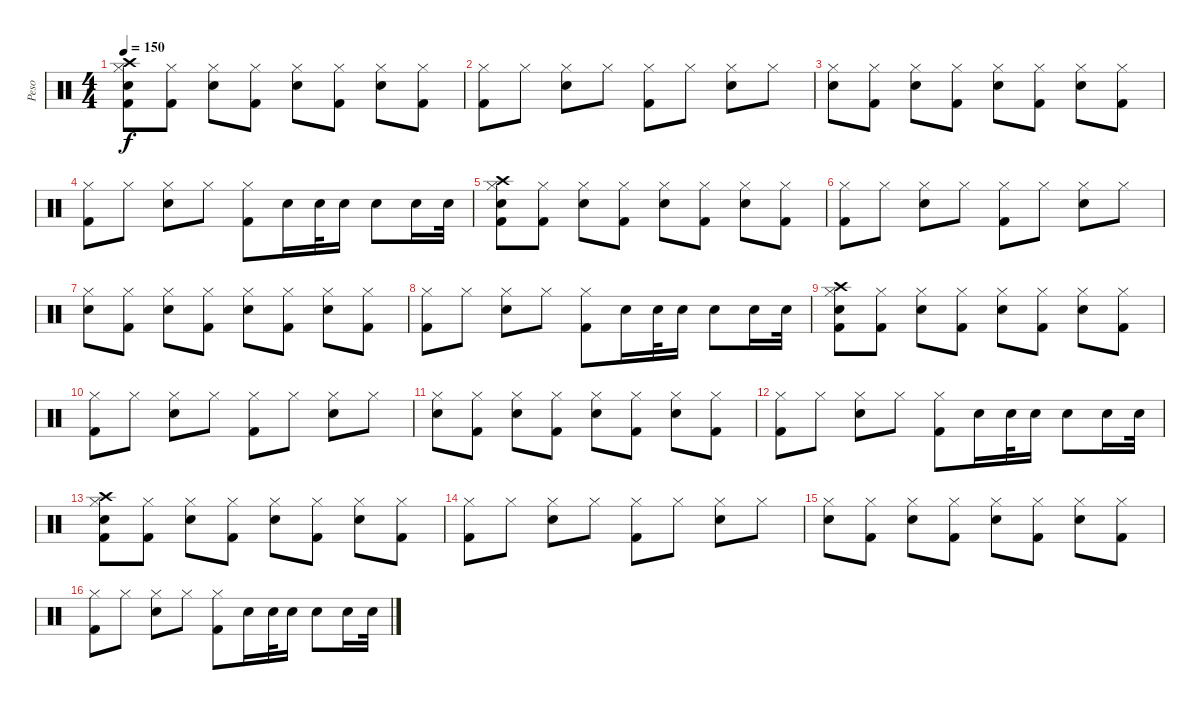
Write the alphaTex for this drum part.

\track ("Peso" "Peso") {instrument percussion}
\staff {score}
\articulation defaults
\ts (4 4)
\tempo 150
\clef neutral
\ks c
("Crash high (hit)" "Hi-Hat (closed)" "Snare (hit) 2" "Kick (hit) 2").8{dy f} ("Hi-Hat (closed)" "Kick (hit) 2").8 ("Hi-Hat (closed)" "Snare (hit) 2").8 ("Hi-Hat (closed)" "Kick (hit) 2").8 ("Hi-Hat (closed)" "Snare (hit) 2").8 ("Hi-Hat (closed)" "Kick (hit) 2").8 ("Hi-Hat (closed)" "Snare (hit) 2").8 ("Hi-Hat (closed)" "Kick (hit) 2").8 |
("Hi-Hat (closed)" "Kick (hit) 2").8 "Hi-Hat (closed)".8 ("Hi-Hat (closed)" "Snare (hit) 2").8 "Hi-Hat (closed)".8 ("Hi-Hat (closed)" "Kick (hit) 2").8 "Hi-Hat (closed)".8 ("Hi-Hat (closed)" "Snare (hit) 2").8 "Hi-Hat (closed)".8 |
("Hi-Hat (closed)" "Snare (hit) 2").8 ("Hi-Hat (closed)" "Kick (hit) 2").8 ("Hi-Hat (closed)" "Snare (hit) 2").8 ("Hi-Hat (closed)" "Kick (hit) 2").8 ("Hi-Hat (closed)" "Snare (hit) 2").8 ("Hi-Hat (closed)" "Kick (hit) 2").8 ("Hi-Hat (closed)" "Snare (hit) 2").8 ("Hi-Hat (closed)" "Kick (hit) 2").8 |
("Hi-Hat (closed)" "Kick (hit) 2").8 "Hi-Hat (closed)".8 ("Hi-Hat (closed)" "Snare (hit) 2").8 "Hi-Hat (closed)".8 ("Hi-Hat (closed)" "Kick (hit) 2").8 "Snare (hit) 2".16 "Snare (hit) 2".32 "Snare (hit) 2".16 "Snare (hit) 2".8 "Snare (hit) 2".16 "Snare (hit) 2".32 |
("Crash high (hit)" "Hi-Hat (closed)" "Snare (hit) 2" "Kick (hit) 2").8 ("Hi-Hat (closed)" "Kick (hit) 2").8 ("Hi-Hat (closed)" "Snare (hit) 2").8 ("Hi-Hat (closed)" "Kick (hit) 2").8 ("Hi-Hat (closed)" "Snare (hit) 2").8 ("Hi-Hat (closed)" "Kick (hit) 2").8 ("Hi-Hat (closed)" "Snare (hit) 2").8 ("Hi-Hat (closed)" "Kick (hit) 2").8 |
("Hi-Hat (closed)" "Kick (hit) 2").8 "Hi-Hat (closed)".8 ("Hi-Hat (closed)" "Snare (hit) 2").8 "Hi-Hat (closed)".8 ("Hi-Hat (closed)" "Kick (hit) 2").8 "Hi-Hat (closed)".8 ("Hi-Hat (closed)" "Snare (hit) 2").8 "Hi-Hat (closed)".8 |
("Hi-Hat (closed)" "Snare (hit) 2").8 ("Hi-Hat (closed)" "Kick (hit) 2").8 ("Hi-Hat (closed)" "Snare (hit) 2").8 ("Hi-Hat (closed)" "Kick (hit) 2").8 ("Hi-Hat (closed)" "Snare (hit) 2").8 ("Hi-Hat (closed)" "Kick (hit) 2").8 ("Hi-Hat (closed)" "Snare (hit) 2").8 ("Hi-Hat (closed)" "Kick (hit) 2").8 |
("Hi-Hat (closed)" "Kick (hit) 2").8 "Hi-Hat (closed)".8 ("Hi-Hat (closed)" "Snare (hit) 2").8 "Hi-Hat (closed)".8 ("Hi-Hat (closed)" "Kick (hit) 2").8 "Snare (hit) 2".16 "Snare (hit) 2".32 "Snare (hit) 2".16 "Snare (hit) 2".8 "Snare (hit) 2".16 "Snare (hit) 2".32 |
("Crash high (hit)" "Hi-Hat (closed)" "Snare (hit) 2" "Kick (hit) 2").8 ("Hi-Hat (closed)" "Kick (hit) 2").8 ("Hi-Hat (closed)" "Snare (hit) 2").8 ("Hi-Hat (closed)" "Kick (hit) 2").8 ("Hi-Hat (closed)" "Snare (hit) 2").8 ("Hi-Hat (closed)" "Kick (hit) 2").8 ("Hi-Hat (closed)" "Snare (hit) 2").8 ("Hi-Hat (closed)" "Kick (hit) 2").8 |
("Hi-Hat (closed)" "Kick (hit) 2").8 "Hi-Hat (closed)".8 ("Hi-Hat (closed)" "Snare (hit) 2").8 "Hi-Hat (closed)".8 ("Hi-Hat (closed)" "Kick (hit) 2").8 "Hi-Hat (closed)".8 ("Hi-Hat (closed)" "Snare (hit) 2").8 "Hi-Hat (closed)".8 |
("Hi-Hat (closed)" "Snare (hit) 2").8 ("Hi-Hat (closed)" "Kick (hit) 2").8 ("Hi-Hat (closed)" "Snare (hit) 2").8 ("Hi-Hat (closed)" "Kick (hit) 2").8 ("Hi-Hat (closed)" "Snare (hit) 2").8 ("Hi-Hat (closed)" "Kick (hit) 2").8 ("Hi-Hat (closed)" "Snare (hit) 2").8 ("Hi-Hat (closed)" "Kick (hit) 2").8 |
("Hi-Hat (closed)" "Kick (hit) 2").8 "Hi-Hat (closed)".8 ("Hi-Hat (closed)" "Snare (hit) 2").8 "Hi-Hat (closed)".8 ("Hi-Hat (closed)" "Kick (hit) 2").8 "Snare (hit) 2".16 "Snare (hit) 2".32 "Snare (hit) 2".16 "Snare (hit) 2".8 "Snare (hit) 2".16 "Snare (hit) 2".32 |
("Crash high (hit)" "Hi-Hat (closed)" "Snare (hit) 2" "Kick (hit) 2").8 ("Hi-Hat (closed)" "Kick (hit) 2").8 ("Hi-Hat (closed)" "Snare (hit) 2").8 ("Hi-Hat (closed)" "Kick (hit) 2").8 ("Hi-Hat (closed)" "Snare (hit) 2").8 ("Hi-Hat (closed)" "Kick (hit) 2").8 ("Hi-Hat (closed)" "Snare (hit) 2").8 ("Hi-Hat (closed)" "Kick (hit) 2").8 |
("Hi-Hat (closed)" "Kick (hit) 2").8 "Hi-Hat (closed)".8 ("Hi-Hat (closed)" "Snare (hit) 2").8 "Hi-Hat (closed)".8 ("Hi-Hat (closed)" "Kick (hit) 2").8 "Hi-Hat (closed)".8 ("Hi-Hat (closed)" "Snare (hit) 2").8 "Hi-Hat (closed)".8 |
("Hi-Hat (closed)" "Snare (hit) 2").8 ("Hi-Hat (closed)" "Kick (hit) 2").8 ("Hi-Hat (closed)" "Snare (hit) 2").8 ("Hi-Hat (closed)" "Kick (hit) 2").8 ("Hi-Hat (closed)" "Snare (hit) 2").8 ("Hi-Hat (closed)" "Kick (hit) 2").8 ("Hi-Hat (closed)" "Snare (hit) 2").8 ("Hi-Hat (closed)" "Kick (hit) 2").8 |
("Hi-Hat (closed)" "Kick (hit) 2").8 "Hi-Hat (closed)".8 ("Hi-Hat (closed)" "Snare (hit) 2").8 "Hi-Hat (closed)".8 ("Hi-Hat (closed)" "Kick (hit) 2").8 "Snare (hit) 2".16 "Snare (hit) 2".32 "Snare (hit) 2".16 "Snare (hit) 2".8 "Snare (hit) 2".16 "Snare (hit) 2".32
